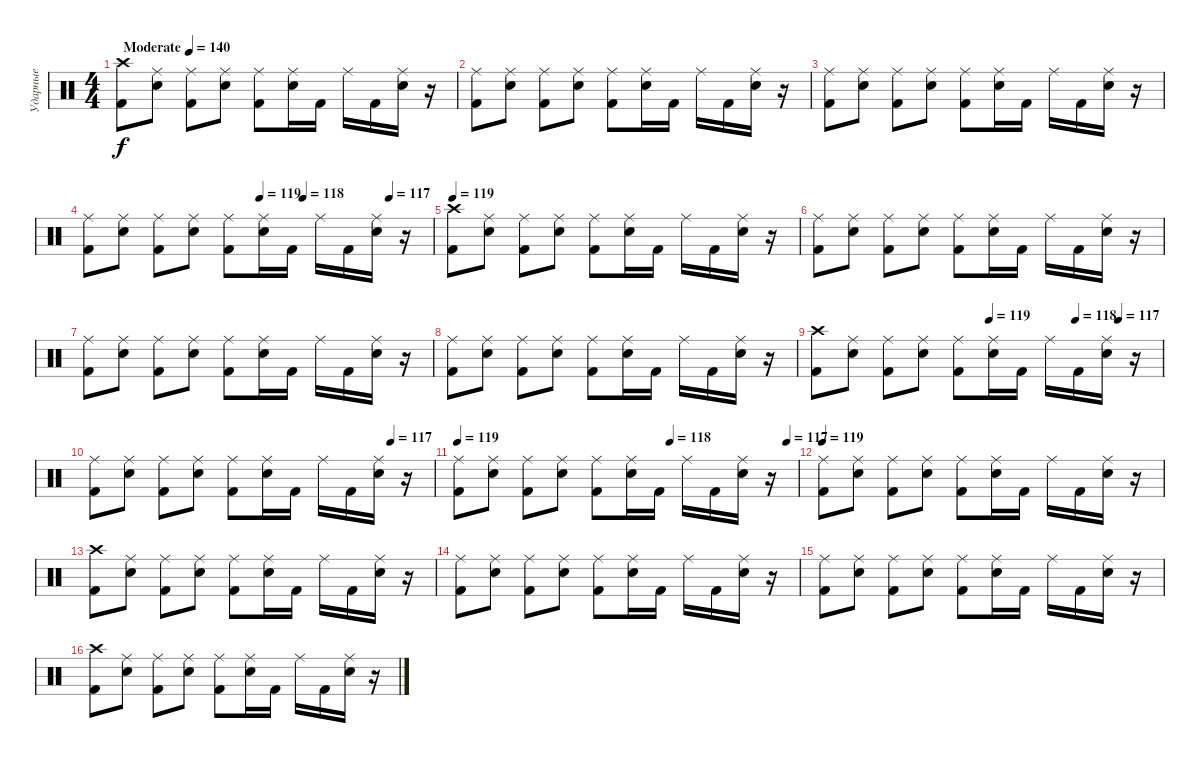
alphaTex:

\track ("Ударные" "Ударные") {instrument percussion}
\staff {score}
\articulation defaults
\ts (4 4)
\tempo (140 "Moderate")
\tempo 119
\tempo (140 "Moderate")
\clef neutral
\ks c
("Crash high (hit)" "Kick (hit) 2").8{dy f} ("Ride (middle)" "Electric Snare (hit)").8 ("Ride (middle)" "Kick (hit) 2").8 ("Ride (middle)" "Electric Snare (hit)").8 ("Ride (middle)" "Kick (hit) 2").8 ("Ride (middle)" "Electric Snare (hit)").16 "Kick (hit) 2".16 "Ride (middle)".16 "Kick (hit) 2".16 ("Ride (middle)" "Electric Snare (hit)").16 r.16 |
("Ride (middle)" "Kick (hit) 2").8 ("Ride (middle)" "Electric Snare (hit)").8 ("Ride (middle)" "Kick (hit) 2").8 ("Ride (middle)" "Electric Snare (hit)").8 ("Ride (middle)" "Kick (hit) 2").8 ("Ride (middle)" "Electric Snare (hit)").16 "Kick (hit) 2".16 "Ride (middle)".16 "Kick (hit) 2".16 ("Ride (middle)" "Electric Snare (hit)").16 r.16 |
("Ride (middle)" "Kick (hit) 2").8 ("Ride (middle)" "Electric Snare (hit)").8 ("Ride (middle)" "Kick (hit) 2").8 ("Ride (middle)" "Electric Snare (hit)").8 ("Ride (middle)" "Kick (hit) 2").8 ("Ride (middle)" "Electric Snare (hit)").16 "Kick (hit) 2".16 "Ride (middle)".16 "Kick (hit) 2".16 ("Ride (middle)" "Electric Snare (hit)").16 r.16 |
\tempo (119 0.5)
\tempo (118 0.625)
\tempo (117 0.875)
("Ride (middle)" "Kick (hit) 2").8 ("Ride (middle)" "Electric Snare (hit)").8 ("Ride (middle)" "Kick (hit) 2").8 ("Ride (middle)" "Electric Snare (hit)").8 ("Ride (middle)" "Kick (hit) 2").8 ("Ride (middle)" "Electric Snare (hit)").16 "Kick (hit) 2".16 "Ride (middle)".16 "Kick (hit) 2".16 ("Ride (middle)" "Electric Snare (hit)").16 r.16 |
\tempo 119
("Crash high (hit)" "Kick (hit) 2").8 ("Ride (middle)" "Electric Snare (hit)").8 ("Ride (middle)" "Kick (hit) 2").8 ("Ride (middle)" "Electric Snare (hit)").8 ("Ride (middle)" "Kick (hit) 2").8 ("Ride (middle)" "Electric Snare (hit)").16 "Kick (hit) 2".16 "Ride (middle)".16 "Kick (hit) 2".16 ("Ride (middle)" "Electric Snare (hit)").16 r.16 |
("Ride (middle)" "Kick (hit) 2").8 ("Ride (middle)" "Electric Snare (hit)").8 ("Ride (middle)" "Kick (hit) 2").8 ("Ride (middle)" "Electric Snare (hit)").8 ("Ride (middle)" "Kick (hit) 2").8 ("Ride (middle)" "Electric Snare (hit)").16 "Kick (hit) 2".16 "Ride (middle)".16 "Kick (hit) 2".16 ("Ride (middle)" "Electric Snare (hit)").16 r.16 |
("Ride (middle)" "Kick (hit) 2").8 ("Ride (middle)" "Electric Snare (hit)").8 ("Ride (middle)" "Kick (hit) 2").8 ("Ride (middle)" "Electric Snare (hit)").8 ("Ride (middle)" "Kick (hit) 2").8 ("Ride (middle)" "Electric Snare (hit)").16 "Kick (hit) 2".16 "Ride (middle)".16 "Kick (hit) 2".16 ("Ride (middle)" "Electric Snare (hit)").16 r.16 |
("Ride (middle)" "Kick (hit) 2").8 ("Ride (middle)" "Electric Snare (hit)").8 ("Ride (middle)" "Kick (hit) 2").8 ("Ride (middle)" "Electric Snare (hit)").8 ("Ride (middle)" "Kick (hit) 2").8 ("Ride (middle)" "Electric Snare (hit)").16 "Kick (hit) 2".16 "Ride (middle)".16 "Kick (hit) 2".16 ("Ride (middle)" "Electric Snare (hit)").16 r.16 |
\tempo (119 0.5)
\tempo (118 0.75)
\tempo (117 0.875)
("Crash high (hit)" "Kick (hit) 2").8 ("Ride (middle)" "Electric Snare (hit)").8 ("Ride (middle)" "Kick (hit) 2").8 ("Ride (middle)" "Electric Snare (hit)").8 ("Ride (middle)" "Kick (hit) 2").8 ("Ride (middle)" "Electric Snare (hit)").16 "Kick (hit) 2".16 "Ride (middle)".16 "Kick (hit) 2".16 ("Ride (middle)" "Electric Snare (hit)").16 r.16 |
\tempo (117 0.875)
("Ride (middle)" "Kick (hit) 2").8 ("Ride (middle)" "Electric Snare (hit)").8 ("Ride (middle)" "Kick (hit) 2").8 ("Ride (middle)" "Electric Snare (hit)").8 ("Ride (middle)" "Kick (hit) 2").8 ("Ride (middle)" "Electric Snare (hit)").16 "Kick (hit) 2".16 "Ride (middle)".16 "Kick (hit) 2".16 ("Ride (middle)" "Electric Snare (hit)").16 r.16 |
\tempo 119
\tempo (118 0.625)
\tempo (117 0.96875)
("Ride (middle)" "Kick (hit) 2").8 ("Ride (middle)" "Electric Snare (hit)").8 ("Ride (middle)" "Kick (hit) 2").8 ("Ride (middle)" "Electric Snare (hit)").8 ("Ride (middle)" "Kick (hit) 2").8 ("Ride (middle)" "Electric Snare (hit)").16 "Kick (hit) 2".16 "Ride (middle)".16 "Kick (hit) 2".16 ("Ride (middle)" "Electric Snare (hit)").16 r.16 |
\tempo 119
("Ride (middle)" "Kick (hit) 2").8 ("Ride (middle)" "Electric Snare (hit)").8 ("Ride (middle)" "Kick (hit) 2").8 ("Ride (middle)" "Electric Snare (hit)").8 ("Ride (middle)" "Kick (hit) 2").8 ("Ride (middle)" "Electric Snare (hit)").16 "Kick (hit) 2".16 "Ride (middle)".16 "Kick (hit) 2".16 ("Ride (middle)" "Electric Snare (hit)").16 r.16 |
("Crash high (hit)" "Kick (hit) 2").8 ("Ride (middle)" "Electric Snare (hit)").8 ("Ride (middle)" "Kick (hit) 2").8 ("Ride (middle)" "Electric Snare (hit)").8 ("Ride (middle)" "Kick (hit) 2").8 ("Ride (middle)" "Electric Snare (hit)").16 "Kick (hit) 2".16 "Ride (middle)".16 "Kick (hit) 2".16 ("Ride (middle)" "Electric Snare (hit)").16 r.16 |
("Ride (middle)" "Kick (hit) 2").8 ("Ride (middle)" "Electric Snare (hit)").8 ("Ride (middle)" "Kick (hit) 2").8 ("Ride (middle)" "Electric Snare (hit)").8 ("Ride (middle)" "Kick (hit) 2").8 ("Ride (middle)" "Electric Snare (hit)").16 "Kick (hit) 2".16 "Ride (middle)".16 "Kick (hit) 2".16 ("Ride (middle)" "Electric Snare (hit)").16 r.16 |
("Ride (middle)" "Kick (hit) 2").8 ("Ride (middle)" "Electric Snare (hit)").8 ("Ride (middle)" "Kick (hit) 2").8 ("Ride (middle)" "Electric Snare (hit)").8 ("Ride (middle)" "Kick (hit) 2").8 ("Ride (middle)" "Electric Snare (hit)").16 "Kick (hit) 2".16 "Ride (middle)".16 "Kick (hit) 2".16 ("Ride (middle)" "Electric Snare (hit)").16 r.16 |
("Crash high (hit)" "Kick (hit) 2").8 ("Ride (middle)" "Electric Snare (hit)").8 ("Ride (middle)" "Kick (hit) 2").8 ("Ride (middle)" "Electric Snare (hit)").8 ("Ride (middle)" "Kick (hit) 2").8 ("Ride (middle)" "Electric Snare (hit)").16 "Kick (hit) 2".16 "Ride (middle)".16 "Kick (hit) 2".16 ("Ride (middle)" "Electric Snare (hit)").16 r.16
